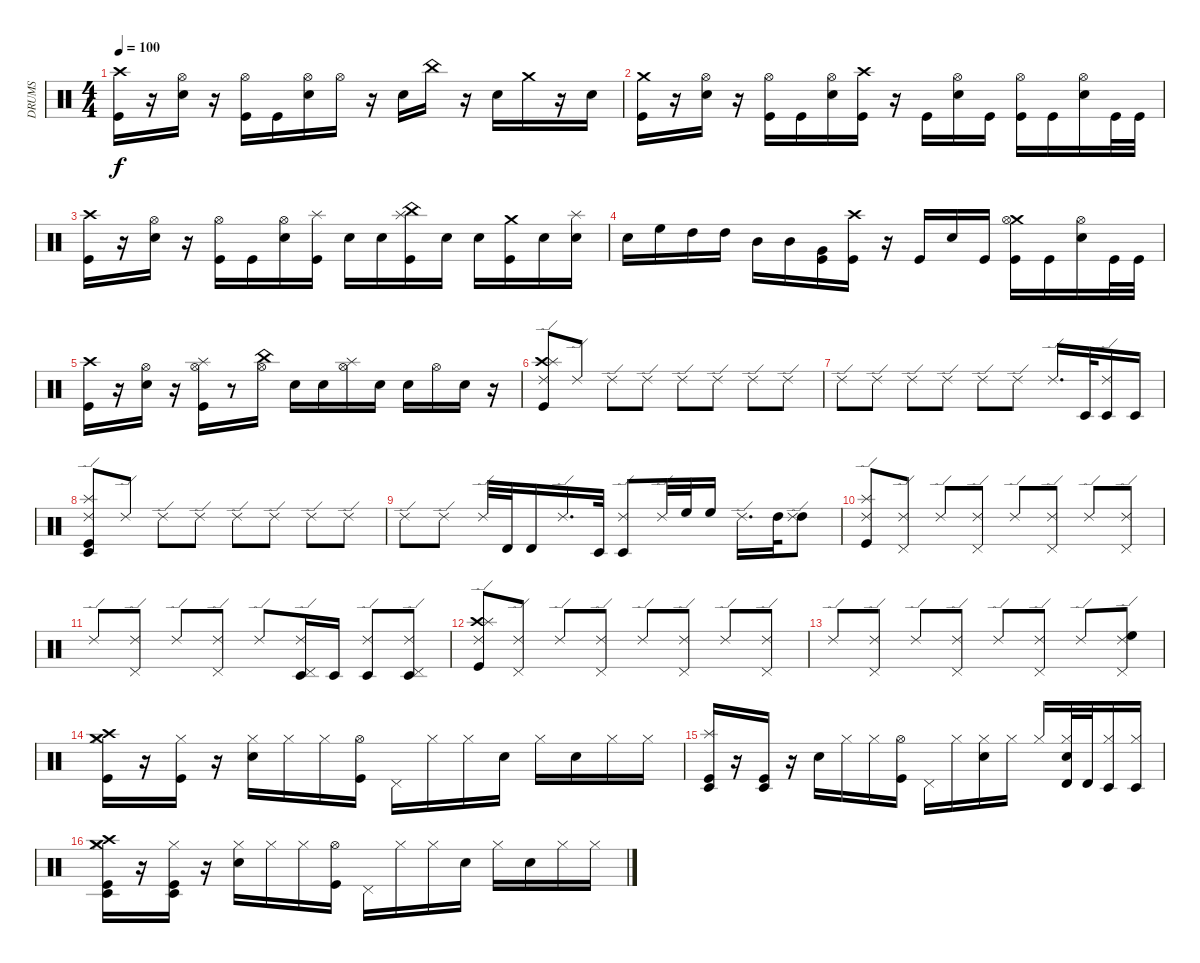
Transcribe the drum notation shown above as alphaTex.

\track ("DRUMS" "DRUMS") {instrument percussion}
\staff {score}
\articulation defaults
\ts (4 4)
\tempo 100
\clef neutral
\ks c
("Kick (hit)" "Crash high (hit)").16{dy f} r.16 ("Hi-Hat (open)" "Snare (hit) 2").16 r.16 ("Hi-Hat (open)" "Kick (hit)").16 "Kick (hit)".16 ("Hi-Hat (open)" "Snare (hit) 2").16 "Hi-Hat (open)".16 r.16 "Snare (hit) 2".16 "China (hit)".16 r.16 "Snare (hit) 2".16 "Crash medium (hit)".16 r.16 "Snare (hit) 2".16 |
("Kick (hit)" "Crash medium (hit)").16 r.16 ("Hi-Hat (open)" "Snare (hit) 2").16 r.16 ("Hi-Hat (open)" "Kick (hit)").16 "Kick (hit)".16 ("Snare (hit) 2" "Hi-Hat (open)").16 ("Kick (hit)" "Crash high (hit)").16 r.16 "Kick (hit)".16 ("Hi-Hat (open)" "Snare (hit) 2").16 "Kick (hit)".16 ("Hi-Hat (open)" "Kick (hit)").16 "Kick (hit)".16 ("Hi-Hat (open)" "Electric Snare (hit)").16 "Kick (hit)".32 "Kick (hit)".32 |
("Kick (hit)" "Crash high (hit)").16 r.16 ("Hi-Hat (open)" "Snare (hit) 2").16 r.16 ("Hi-Hat (open)" "Kick (hit)").16 "Kick (hit)".16 ("Hi-Hat (open)" "Snare (hit) 2").16 ("Splash (hit)" "Kick (hit)").16 "Snare (hit) 2".16 "Snare (hit) 2".16 ("Splash (hit)" "China (hit)" "Kick (hit)").16 "Snare (hit) 2".16 "Snare (hit) 2".16 ("Crash medium (hit)" "Kick (hit)").16 "Snare (hit) 2".16 ("Snare (hit) 2" "Splash (hit)").16 |
"Snare (hit) 2".16 "High Floor Tom (hit)".16 "High Tom (hit)".16 "High Tom (hit)".16 "Mid Tom (hit)".16 "Mid Tom (hit)".16 ("Kick (hit)" "Very Low Tom (hit)").16 ("Kick (hit)" "Crash high (hit)").16 r.16 "Kick (hit)".16 "Snare (hit) 2".16 "Kick (hit)".16 ("Crash medium (hit)" "Hi-Hat (open)" "Kick (hit)").16 "Kick (hit)".16 ("Hi-Hat (open)" "Snare (hit) 2").16 "Kick (hit)".32 "Kick (hit)".32 |
("Kick (hit)" "Crash high (hit)").16 r.16 ("Hi-Hat (open)" "Snare (hit) 2").16 r.16 ("Splash (hit)" "Hi-Hat (open)" "Kick (hit)").16 r.8 ("China (hit)" "Hi-Hat (open)").16 "Electric Snare (hit)".16 "Electric Snare (hit)".16 ("Splash (hit)" "Hi-Hat (open)").16 "Electric Snare (hit)".16 "Electric Snare (hit)".16 "Hi-Hat (open)".16 "Electric Snare (hit)".16 r.16 |
("Crash high (hit)" "Splash (hit)" "Kick (hit)" "Ride (edge) 2").8 "Ride (edge) 2".8 "Ride (edge) 2".8 "Ride (edge) 2".8 "Ride (edge) 2".8 "Ride (edge) 2".8 "Ride (edge) 2".8 "Ride (edge) 2".8 |
"Ride (edge) 2".8 "Ride (edge) 2".8 "Ride (edge) 2".8 "Ride (edge) 2".8 "Ride (edge) 2".8 "Ride (edge) 2".8 "Ride (edge) 2".16{d} "Timbale low (hit)".32 ("Timbale low (hit)" "Ride (edge) 2").16 "Timbale low (hit)".16 |
("Kick (hit)" "Ride (edge) 2" "Splash (hit)" "Timbale low (hit)").8 "Ride (edge) 2".8 "Ride (edge) 2".8 "Ride (edge) 2".8 "Ride (edge) 2".8 "Ride (edge) 2".8 "Ride (edge) 2".8 "Ride (edge) 2".8 |
"Ride (edge) 2".8 "Ride (edge) 2".8 "Ride (edge) 2".32 "Timbale high (hit)".32 "Timbale high (hit)".16 "Ride (edge) 2".16{d} "Timbale low (hit)".32 ("Timbale low (hit)" "Ride (edge) 2").8 "Ride (edge) 2".32 "High Floor Tom (hit)".32 "High Floor Tom (hit)".16 "Ride (edge) 2".16{d} "High Tom (hit)".32 ("High Tom (hit)" "Ride (edge) 2").8 |
("Kick (hit)" "Splash (hit)" "Ride (edge) 2").8 ("Pedal Hi-Hat (hit)" "Ride (edge) 2").8 "Ride (edge) 2".8 ("Pedal Hi-Hat (hit)" "Ride (edge) 2").8 "Ride (edge) 2".8 ("Pedal Hi-Hat (hit)" "Ride (edge) 2").8 "Ride (edge) 2".8 ("Pedal Hi-Hat (hit)" "Ride (edge) 2").8 |
"Ride (edge) 2".8 ("Pedal Hi-Hat (hit)" "Ride (edge) 2").8 "Ride (edge) 2".8 ("Pedal Hi-Hat (hit)" "Ride (edge) 2").8 "Ride (edge) 2".8 ("Timbale low (hit)" "Pedal Hi-Hat (hit)" "Ride (edge) 2").16 "Timbale low (hit)".16 ("Timbale low (hit)" "Ride (edge) 2").8 ("Timbale low (hit)" "Pedal Hi-Hat (hit)" "Ride (edge) 2").8 |
("Crash high (hit)" "Kick (hit)" "Splash (hit)" "Ride (edge) 2").8 ("Pedal Hi-Hat (hit)" "Ride (edge) 2").8 "Ride (edge) 2".8 ("Pedal Hi-Hat (hit)" "Ride (edge) 2").8 "Ride (edge) 2".8 ("Pedal Hi-Hat (hit)" "Ride (edge) 2").8 "Ride (edge) 2".8 ("Pedal Hi-Hat (hit)" "Ride (edge) 2").8 |
"Ride (edge) 2".8 ("Pedal Hi-Hat (hit)" "Ride (edge) 2").8 "Ride (edge) 2".8 ("Pedal Hi-Hat (hit)" "Ride (edge) 2").8 "Ride (edge) 2".8 ("Pedal Hi-Hat (hit)" "Ride (edge) 2").8 "Ride (edge) 2".8 ("High Floor Tom (hit)" "Pedal Hi-Hat (hit)" "Ride (edge) 2").8 |
("Hi-Hat (closed)" "Crash high (hit)" "Crash medium (hit)" "Kick (hit)").16 r.16 ("Hi-Hat (closed)" "Kick (hit)").16 r.16 ("Hi-Hat (closed)" "Snare (hit) 2").16 "Hi-Hat (closed)".16 "Hi-Hat (closed)".16 ("Hi-Hat (open)" "Kick (hit)").16 "Pedal Hi-Hat (hit)".16 "Hi-Hat (closed)".16 "Hi-Hat (closed)".16 "Snare (hit) 2".16 "Hi-Hat (closed)".16 "Snare (hit) 2".16 "Hi-Hat (closed)".16 "Hi-Hat (closed)".16 |
("Timbale low (hit)" "Splash (hit)" "Kick (hit)").16 r.16 ("Timbale low (hit)" "Kick (hit)").16 r.16 "Snare (hit) 2".16 "Hi-Hat (closed)".16 "Hi-Hat (closed)".16 ("Hi-Hat (open)" "Kick (hit)").16 "Pedal Hi-Hat (hit)".16 "Hi-Hat (closed)".16 ("Snare (hit) 2" "Hi-Hat (closed)").16 "Hi-Hat (closed)".16 "Hi-Hat (closed)".16 ("Snare (hit) 2" "Hi-Hat (closed)" "Timbale high (hit)").32 "Timbale high (hit)".32 ("Timbale low (hit)" "Hi-Hat (closed)").16 ("Timbale low (hit)" "Hi-Hat (closed)").16 |
("Timbale low (hit)" "Hi-Hat (closed)" "Crash high (hit)" "Crash medium (hit)" "Kick (hit)").16 r.16 ("Timbale low (hit)" "Hi-Hat (closed)" "Kick (hit)").16 r.16 ("Hi-Hat (closed)" "Snare (hit) 2").16 "Hi-Hat (closed)".16 "Hi-Hat (closed)".16 ("Hi-Hat (open)" "Kick (hit)").16 "Pedal Hi-Hat (hit)".16 "Hi-Hat (closed)".16 "Hi-Hat (closed)".16 "Snare (hit) 2".16 "Hi-Hat (closed)".16 "Snare (hit) 2".16 "Hi-Hat (closed)".16 "Hi-Hat (closed)".16
